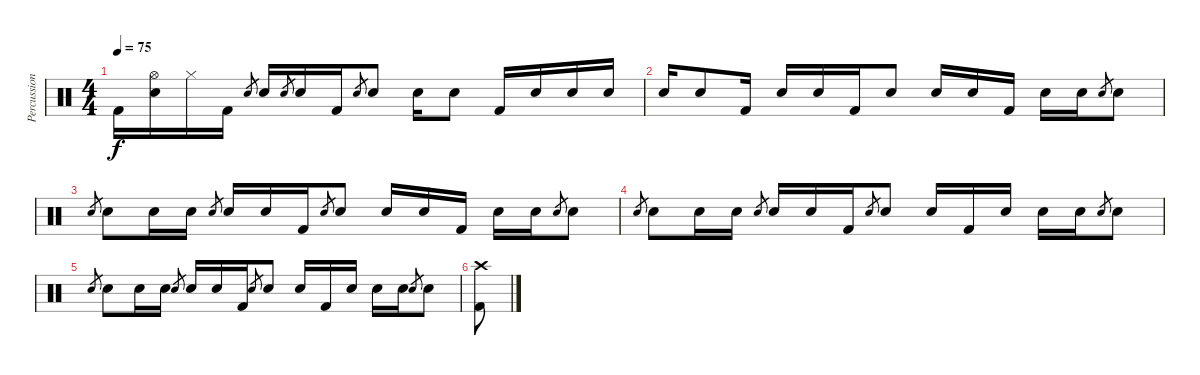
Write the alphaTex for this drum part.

\track ("Percussion" "Percussion") {instrument percussion}
\staff {score}
\articulation defaults
\ts (4 4)
\tempo 75
\clef neutral
\ks c "Kick (hit) 2".16{dy f}
("Hi-Hat (open)" "Electric Snare (hit)").16 "Hi-Hat (closed)".16 "Kick (hit) 2".16 "Electric Snare (hit)".8{gr} "Electric Snare (hit)".16 "Electric Snare (hit)".8{gr} "Electric Snare (hit)".16 "Kick (hit) 2".16 "Electric Snare (hit)".8{gr} "Electric Snare (hit)".8 "Electric Snare (hit)".16 "Electric Snare (hit)".8 "Kick (hit) 2".16 "Electric Snare (hit)".16 "Electric Snare (hit)".16 "Electric Snare (hit)".16 |
"Electric Snare (hit)".16 "Electric Snare (hit)".8 "Kick (hit) 2".16 "Electric Snare (hit)".16 "Electric Snare (hit)".16 "Kick (hit) 2".16 "Electric Snare (hit)".8 "Electric Snare (hit)".16 "Electric Snare (hit)".16 "Kick (hit) 2".16 "Electric Snare (hit)".16 "Electric Snare (hit)".16 "Electric Snare (hit)".8{gr} "Electric Snare (hit)".8 |
"Electric Snare (hit)".8{gr} "Electric Snare (hit)".8 "Electric Snare (hit)".16 "Electric Snare (hit)".16 "Electric Snare (hit)".8{gr} "Electric Snare (hit)".16 "Electric Snare (hit)".16 "Kick (hit) 2".16 "Electric Snare (hit)".8{gr} "Electric Snare (hit)".8 "Electric Snare (hit)".16 "Electric Snare (hit)".16 "Kick (hit) 2".16 "Electric Snare (hit)".16 "Electric Snare (hit)".16 "Electric Snare (hit)".8{gr} "Electric Snare (hit)".8 |
"Electric Snare (hit)".8{gr} "Electric Snare (hit)".8 "Electric Snare (hit)".16 "Electric Snare (hit)".16 "Electric Snare (hit)".8{gr} "Electric Snare (hit)".16 "Electric Snare (hit)".16 "Kick (hit) 2".16 "Electric Snare (hit)".8{gr} "Electric Snare (hit)".8 "Electric Snare (hit)".16 "Kick (hit) 2".16 "Electric Snare (hit)".16 "Electric Snare (hit)".16 "Electric Snare (hit)".16 "Electric Snare (hit)".8{gr} "Electric Snare (hit)".8 |
"Electric Snare (hit)".8{gr} "Electric Snare (hit)".8 "Electric Snare (hit)".16 "Electric Snare (hit)".16 "Electric Snare (hit)".8{gr} "Electric Snare (hit)".16 "Electric Snare (hit)".16 "Kick (hit) 2".16 "Electric Snare (hit)".8{gr} "Electric Snare (hit)".8 "Electric Snare (hit)".16 "Kick (hit) 2".16 "Electric Snare (hit)".16 "Electric Snare (hit)".16 "Electric Snare (hit)".16 "Electric Snare (hit)".8{gr} "Electric Snare (hit)".8 |
("Crash high (hit)" "Kick (hit) 2").8
